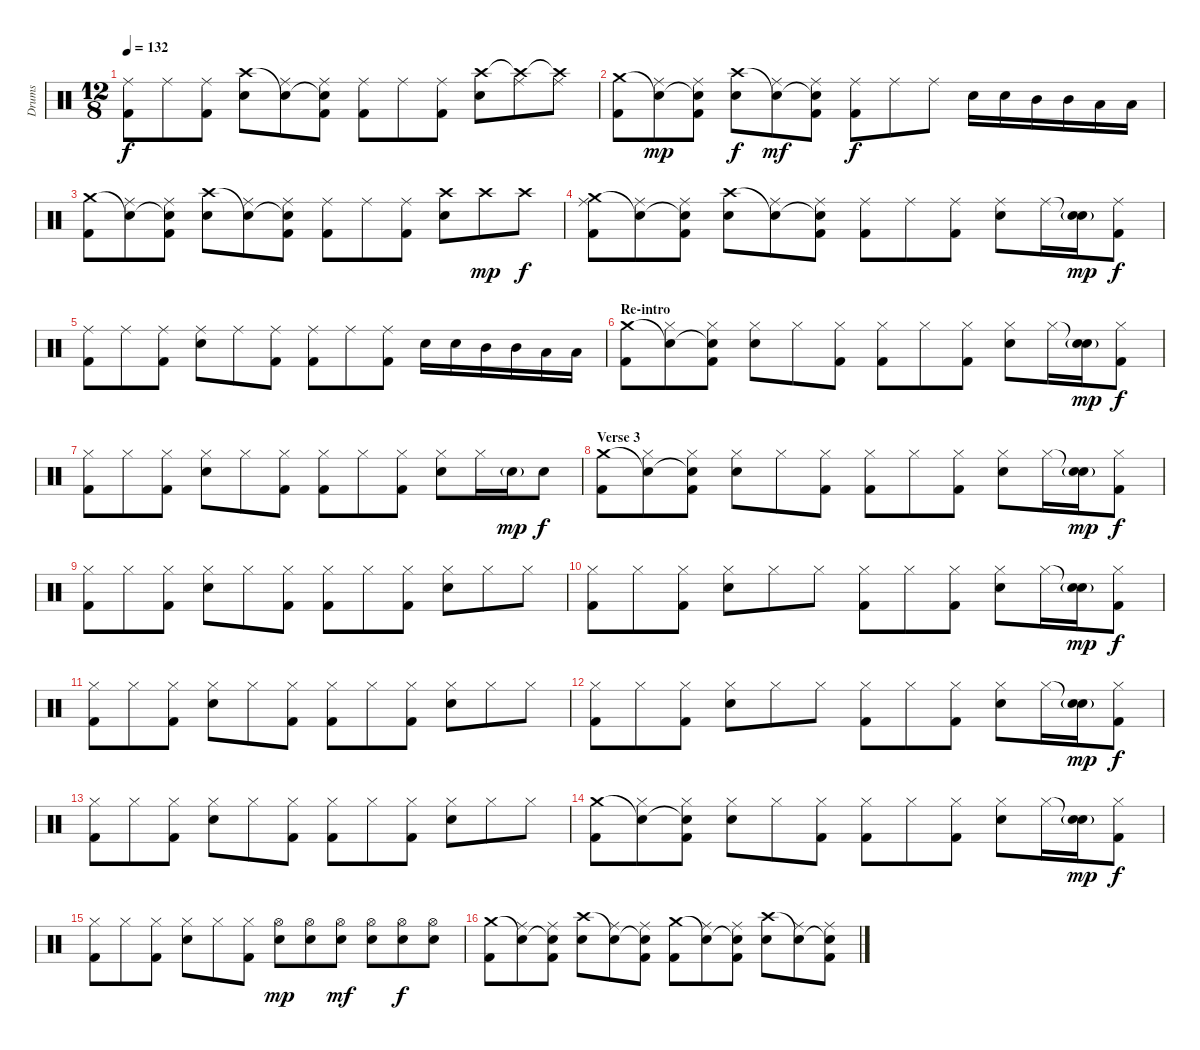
\track ("Drums" "Drums") {instrument percussion}
\staff {score}
\articulation defaults
\ts (12 8)
\tempo 132
\clef neutral
\ks c
("Ride (middle)" "Kick (hit) 2").8{dy f} "Ride (middle)".8 ("Ride (middle)" "Kick (hit) 2").8 ("Crash high (hit)" "Electric Snare (hit)").8 ("Snare (hit)"{t} "Ride (middle)").8 ("Snare (hit)"{t} "Ride (middle)" "Kick (hit) 2").8 ("Ride (middle)" "Kick (hit) 2").8 "Ride (middle)".8 ("Ride (middle)" "Kick (hit) 2").8 ("Crash high (hit)" "Electric Snare (hit)").8 ("Crash high (hit)"{t} "Ride (middle)").8 ("Crash high (hit)"{t} "Ride (middle)").8 |
("Crash medium (hit)" "Kick (hit) 2").8 ("Snare (hit)"{t} "Ride (middle)").8{dy mp} ("Snare (hit)"{t} "Ride (middle)" "Kick (hit) 2").8 ("Crash high (hit)" "Electric Snare (hit)").8{dy f} ("Snare (hit)"{t} "Ride (middle)").8{dy mf} ("Snare (hit)"{t} "Ride (middle)" "Kick (hit) 2").8 ("Ride (middle)" "Kick (hit) 2").8{dy f} "Ride (middle)".8 "Ride (middle)".8 "Electric Snare (hit)".16 "Electric Snare (hit)".16 "Mid Tom (hit)".16 "Mid Tom (hit)".16 "Low Tom (hit)".16 "Low Tom (hit)".16 |
("Crash medium (hit)" "Kick (hit) 2").8 ("Snare (hit)"{t} "Ride (middle)").8 ("Snare (hit)"{t} "Ride (middle)" "Kick (hit) 2").8 ("Crash high (hit)" "Electric Snare (hit)").8 ("Snare (hit)"{t} "Ride (middle)").8 ("Snare (hit)"{t} "Ride (middle)" "Kick (hit) 2").8 ("Ride (middle)" "Kick (hit) 2").8 "Ride (middle)".8 ("Ride (middle)" "Kick (hit) 2").8 ("Crash high (hit)" "Electric Snare (hit)").8 "Crash high (hit)".8{dy mp} "Crash high (hit)".8{dy f} |
("Crash medium (hit)" "Ride (middle)" "Kick (hit) 2").8 ("Snare (hit)"{t} "Ride (middle)").8 ("Snare (hit)"{t} "Ride (middle)" "Kick (hit) 2").8 ("Crash high (hit)" "Electric Snare (hit)").8 ("Snare (hit)"{t} "Ride (middle)").8 ("Snare (hit)"{t} "Ride (middle)" "Kick (hit) 2").8 ("Ride (middle)" "Kick (hit) 2").8 "Ride (middle)".8 ("Ride (middle)" "Kick (hit) 2").8 ("Ride (middle)" "Electric Snare (hit)").8 "Ride (middle)".16 ("Snare (hit)"{t} "Electric Snare (hit)"{g}).16{dy mp} ("Ride (middle)" "Kick (hit) 2").8{dy f} |
("Ride (middle)" "Kick (hit) 2").8 "Ride (middle)".8 ("Ride (middle)" "Kick (hit) 2").8 ("Ride (middle)" "Electric Snare (hit)").8 "Ride (middle)".8 ("Ride (middle)" "Kick (hit) 2").8 ("Ride (middle)" "Kick (hit) 2").8 "Ride (middle)".8 ("Ride (middle)" "Kick (hit) 2").8 "Electric Snare (hit)".16 "Electric Snare (hit)".16 "Mid Tom (hit)".16 "Mid Tom (hit)".16 "Low Tom (hit)".16 "Low Tom (hit)".16 |
\section ("" "Re-intro")
("Crash medium (hit)" "Kick (hit) 2").8 ("Snare (hit)"{t} "Hi-Hat (closed)").8 ("Snare (hit)"{t} "Hi-Hat (closed)" "Kick (hit) 2").8 ("Hi-Hat (closed)" "Electric Snare (hit)").8 "Hi-Hat (closed)".8 ("Hi-Hat (closed)" "Kick (hit) 2").8 ("Hi-Hat (closed)" "Kick (hit) 2").8 "Hi-Hat (closed)".8 ("Hi-Hat (closed)" "Kick (hit) 2").8 ("Hi-Hat (closed)" "Electric Snare (hit)").8 "Hi-Hat (closed)".16 ("Snare (hit)"{t} "Electric Snare (hit)"{g}).16{dy mp} ("Hi-Hat (closed)" "Kick (hit) 2").8{dy f} |
("Hi-Hat (closed)" "Kick (hit) 2").8 "Hi-Hat (closed)".8 ("Hi-Hat (closed)" "Kick (hit) 2").8 ("Hi-Hat (closed)" "Electric Snare (hit)").8 "Hi-Hat (closed)".8 ("Hi-Hat (closed)" "Kick (hit) 2").8 ("Hi-Hat (closed)" "Kick (hit) 2").8 "Hi-Hat (closed)".8 ("Hi-Hat (closed)" "Kick (hit) 2").8 ("Hi-Hat (closed)" "Electric Snare (hit)").8 "Hi-Hat (closed)".16 "Electric Snare (hit)"{g}.16{dy mp} "Electric Snare (hit)".8{dy f} |
\section ("" "Verse 3")
("Crash medium (hit)" "Kick (hit) 2").8 ("Snare (hit)"{t} "Hi-Hat (closed)").8 ("Snare (hit)"{t} "Hi-Hat (closed)" "Kick (hit) 2").8 ("Hi-Hat (closed)" "Electric Snare (hit)").8 "Hi-Hat (closed)".8 ("Hi-Hat (closed)" "Kick (hit) 2").8 ("Hi-Hat (closed)" "Kick (hit) 2").8 "Hi-Hat (closed)".8 ("Hi-Hat (closed)" "Kick (hit) 2").8 ("Hi-Hat (closed)" "Electric Snare (hit)").8 "Hi-Hat (closed)".16 ("Snare (hit)"{t} "Electric Snare (hit)"{g}).16{dy mp} ("Hi-Hat (closed)" "Kick (hit) 2").8{dy f} |
("Hi-Hat (closed)" "Kick (hit) 2").8 "Hi-Hat (closed)".8 ("Hi-Hat (closed)" "Kick (hit) 2").8 ("Hi-Hat (closed)" "Electric Snare (hit)").8 "Hi-Hat (closed)".8 ("Hi-Hat (closed)" "Kick (hit) 2").8 ("Hi-Hat (closed)" "Kick (hit) 2").8 "Hi-Hat (closed)".8 ("Hi-Hat (closed)" "Kick (hit) 2").8 ("Hi-Hat (closed)" "Electric Snare (hit)").8 "Hi-Hat (closed)".8 "Hi-Hat (closed)".8 |
("Hi-Hat (closed)" "Kick (hit) 2").8 "Hi-Hat (closed)".8 ("Hi-Hat (closed)" "Kick (hit) 2").8 ("Hi-Hat (closed)" "Electric Snare (hit)").8 "Hi-Hat (closed)".8 "Hi-Hat (closed)".8 ("Hi-Hat (closed)" "Kick (hit) 2").8 "Hi-Hat (closed)".8 ("Hi-Hat (closed)" "Kick (hit) 2").8 ("Hi-Hat (closed)" "Electric Snare (hit)").8 "Hi-Hat (closed)".16 ("Snare (hit)"{t} "Electric Snare (hit)"{g}).16{dy mp} ("Hi-Hat (closed)" "Kick (hit) 2").8{dy f} |
("Hi-Hat (closed)" "Kick (hit) 2").8 "Hi-Hat (closed)".8 ("Hi-Hat (closed)" "Kick (hit) 2").8 ("Hi-Hat (closed)" "Electric Snare (hit)").8 "Hi-Hat (closed)".8 ("Hi-Hat (closed)" "Kick (hit) 2").8 ("Hi-Hat (closed)" "Kick (hit) 2").8 "Hi-Hat (closed)".8 ("Hi-Hat (closed)" "Kick (hit) 2").8 ("Hi-Hat (closed)" "Electric Snare (hit)").8 "Hi-Hat (closed)".8 "Hi-Hat (closed)".8 |
("Hi-Hat (closed)" "Kick (hit) 2").8 "Hi-Hat (closed)".8 ("Hi-Hat (closed)" "Kick (hit) 2").8 ("Hi-Hat (closed)" "Electric Snare (hit)").8 "Hi-Hat (closed)".8 "Hi-Hat (closed)".8 ("Hi-Hat (closed)" "Kick (hit) 2").8 "Hi-Hat (closed)".8 ("Hi-Hat (closed)" "Kick (hit) 2").8 ("Hi-Hat (closed)" "Electric Snare (hit)").8 "Hi-Hat (closed)".16 ("Snare (hit)"{t} "Electric Snare (hit)"{g}).16{dy mp} ("Hi-Hat (closed)" "Kick (hit) 2").8{dy f} |
("Hi-Hat (closed)" "Kick (hit) 2").8 "Hi-Hat (closed)".8 ("Hi-Hat (closed)" "Kick (hit) 2").8 ("Hi-Hat (closed)" "Electric Snare (hit)").8 "Hi-Hat (closed)".8 ("Hi-Hat (closed)" "Kick (hit) 2").8 ("Hi-Hat (closed)" "Kick (hit) 2").8 "Hi-Hat (closed)".8 ("Hi-Hat (closed)" "Kick (hit) 2").8 ("Hi-Hat (closed)" "Electric Snare (hit)").8 "Hi-Hat (closed)".8 "Hi-Hat (closed)".8 |
("Crash medium (hit)" "Kick (hit) 2").8 ("Snare (hit)"{t} "Hi-Hat (closed)").8 ("Snare (hit)"{t} "Hi-Hat (closed)" "Kick (hit) 2").8 ("Hi-Hat (closed)" "Electric Snare (hit)").8 "Hi-Hat (closed)".8 ("Hi-Hat (closed)" "Kick (hit) 2").8 ("Hi-Hat (closed)" "Kick (hit) 2").8 "Hi-Hat (closed)".8 ("Hi-Hat (closed)" "Kick (hit) 2").8 ("Hi-Hat (closed)" "Electric Snare (hit)").8 "Hi-Hat (closed)".16 ("Snare (hit)"{t} "Electric Snare (hit)"{g}).16{dy mp} ("Hi-Hat (closed)" "Kick (hit) 2").8{dy f} |
("Hi-Hat (closed)" "Kick (hit) 2").8 "Hi-Hat (closed)".8 ("Hi-Hat (closed)" "Kick (hit) 2").8 ("Hi-Hat (closed)" "Electric Snare (hit)").8 "Hi-Hat (closed)".8 ("Hi-Hat (closed)" "Kick (hit) 2").8 ("Hi-Hat (open)" "Electric Snare (hit)").8{dy mp} ("Hi-Hat (open)" "Electric Snare (hit)").8 ("Hi-Hat (open)" "Electric Snare (hit)").8{dy mf} ("Hi-Hat (open)" "Electric Snare (hit)").8 ("Hi-Hat (open)" "Electric Snare (hit)").8{dy f} ("Hi-Hat (open)" "Electric Snare (hit)").8 |
("Crash medium (hit)" "Kick (hit) 2").8 ("Snare (hit)"{t} "Ride (middle)").8 ("Snare (hit)"{t} "Ride (middle)" "Kick (hit) 2").8 ("Crash high (hit)" "Electric Snare (hit)").8 ("Snare (hit)"{t} "Ride (middle)").8 ("Snare (hit)"{t} "Ride (middle)" "Kick (hit) 2").8 ("Crash medium (hit)" "Kick (hit) 2").8 ("Snare (hit)"{t} "Ride (middle)").8 ("Snare (hit)"{t} "Ride (middle)" "Kick (hit) 2").8 ("Crash high (hit)" "Electric Snare (hit)").8 ("Snare (hit)"{t} "Ride (middle)").8 ("Snare (hit)"{t} "Ride (middle)" "Kick (hit) 2").8
